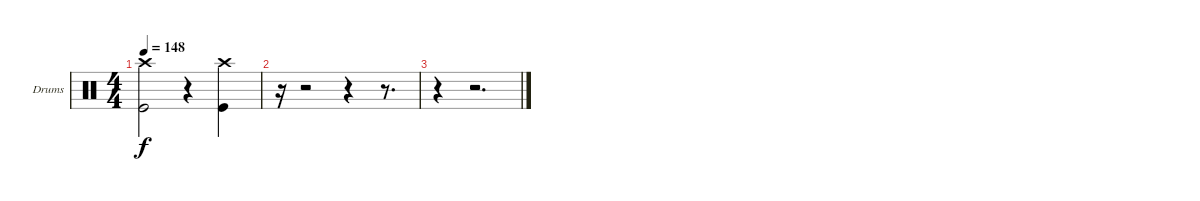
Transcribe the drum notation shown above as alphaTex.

\bracketExtendMode groupsimilarinstruments
\firstSystemTrackNameOrientation horizontal
\otherSystemsTrackNameOrientation horizontal
\track ("Drumkit" "Drums") {instrument percussion}
\staff {score}
\articulation defaults
\ts (4 4)
\tempo 148
\clef neutral
\ks c
("Kick (hit)" "Crash high (hit)").2{dy f} r.4 ("Kick (hit)" "Crash high (hit)").4 |
r.16 r.2 r.4 r.8{d} |
r.4 r.2{d}
